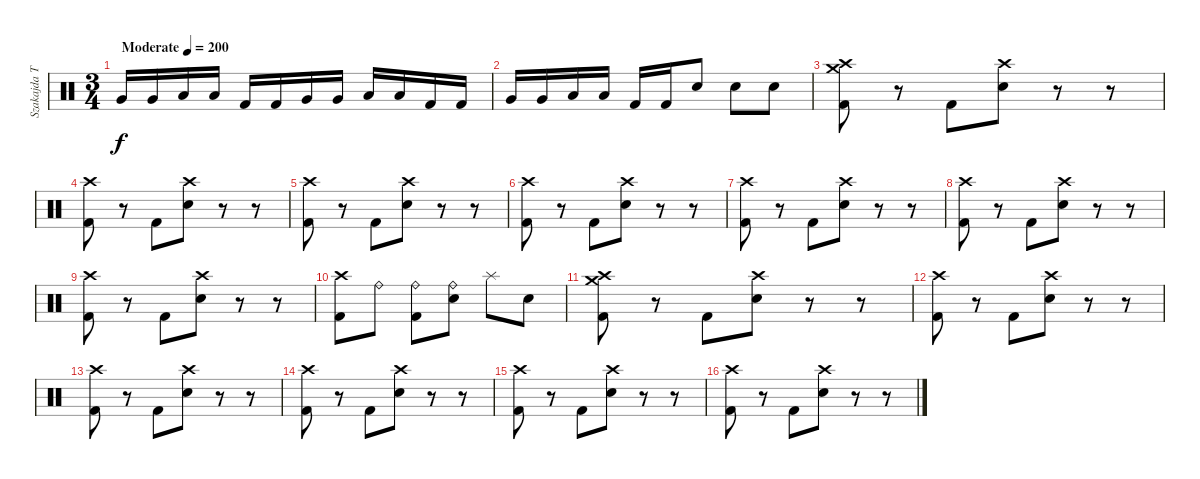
\track ("Szakajda Tibi" "Szakajda T") {instrument percussion}
\staff {score}
\articulation defaults
\ts (3 4)
\tempo (200 "Moderate")
\clef neutral
\ks c "Very Low Tom (hit)".16{dy f} "Very Low Tom (hit)".16 "Low Tom (hit)".16 "Low Tom (hit)".16 "Kick (hit) 2".16 "Kick (hit) 2".16 "Very Low Tom (hit)".16 "Very Low Tom (hit)".16 "Low Tom (hit)".16 "Low Tom (hit)".16 "Kick (hit) 2".16 "Kick (hit) 2".16
|
"Very Low Tom (hit)".16 "Very Low Tom (hit)".16 "Low Tom (hit)".16 "Low Tom (hit)".16 "Kick (hit) 2".16 "Kick (hit) 2".16 "Electric Snare (hit)".8 "Electric Snare (hit)".8 "Electric Snare (hit)".8 |
("Crash high (hit)" "Crash medium (hit)" "Kick (hit) 2").8 r.8 "Kick (hit) 2".8 ("Crash high (hit)" "Electric Snare (hit)").8 r.8 r.8 |
("Crash high (hit)" "Kick (hit) 2").8 r.8 "Kick (hit) 2".8 ("Crash high (hit)" "Electric Snare (hit)").8 r.8 r.8 |
("Crash high (hit)" "Kick (hit) 2").8 r.8 "Kick (hit) 2".8 ("Crash high (hit)" "Electric Snare (hit)").8 r.8 r.8 |
("Crash high (hit)" "Kick (hit) 2").8 r.8 "Kick (hit) 2".8 ("Crash high (hit)" "Electric Snare (hit)").8 r.8 r.8 |
("Crash high (hit)" "Kick (hit) 2").8 r.8 "Kick (hit) 2".8 ("Crash high (hit)" "Electric Snare (hit)").8 r.8 r.8 |
("Crash high (hit)" "Kick (hit) 2").8 r.8 "Kick (hit) 2".8 ("Crash high (hit)" "Electric Snare (hit)").8 r.8 r.8 |
("Crash high (hit)" "Kick (hit) 2").8 r.8 "Kick (hit) 2".8 ("Crash high (hit)" "Electric Snare (hit)").8 r.8 r.8 |
("Crash high (hit)" "Kick (hit) 2").8 "Ride (bell)".8 ("Ride (bell)" "Kick (hit) 2").8 ("Ride (bell)" "Electric Snare (hit)").8 "Splash (hit)".8 "Electric Snare (hit)".8 |
("Crash high (hit)" "Crash medium (hit)" "Kick (hit) 2").8 r.8 "Kick (hit) 2".8 ("Crash high (hit)" "Electric Snare (hit)").8 r.8 r.8 |
("Crash high (hit)" "Kick (hit) 2").8 r.8 "Kick (hit) 2".8 ("Crash high (hit)" "Electric Snare (hit)").8 r.8 r.8 |
("Crash high (hit)" "Kick (hit) 2").8 r.8 "Kick (hit) 2".8 ("Crash high (hit)" "Electric Snare (hit)").8 r.8 r.8 |
("Crash high (hit)" "Kick (hit) 2").8 r.8 "Kick (hit) 2".8 ("Crash high (hit)" "Electric Snare (hit)").8 r.8 r.8 |
("Crash high (hit)" "Kick (hit) 2").8 r.8 "Kick (hit) 2".8 ("Crash high (hit)" "Electric Snare (hit)").8 r.8 r.8 |
("Crash high (hit)" "Kick (hit) 2").8 r.8 "Kick (hit) 2".8 ("Crash high (hit)" "Electric Snare (hit)").8 r.8 r.8
